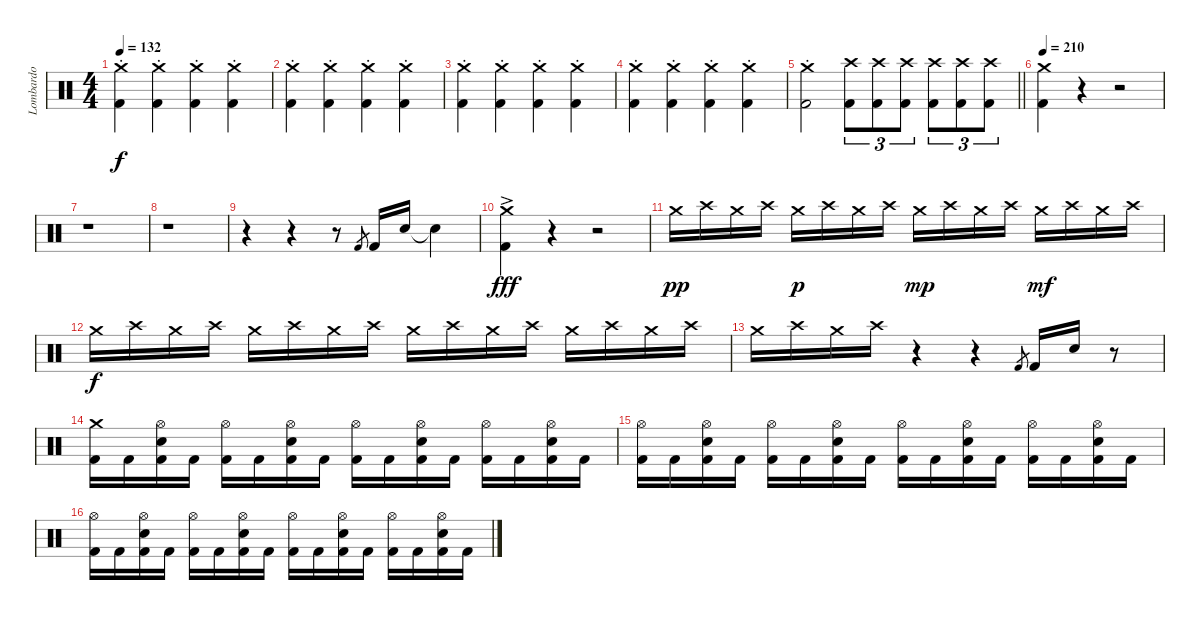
\track ("Lombardo" "Lombardo") {instrument percussion}
\staff {score}
\articulation defaults
\ts (4 4)
\tempo 132
\clef neutral
\ks c
("Crash medium (hit)"{st} "Kick (hit) 2").4{dy f} ("Crash medium (hit)"{st} "Kick (hit) 2").4 ("Crash medium (hit)"{st} "Kick (hit) 2").4 ("Crash medium (hit)"{st} "Kick (hit) 2").4 |
("Crash medium (hit)"{st} "Kick (hit) 2").4 ("Crash medium (hit)"{st} "Kick (hit) 2").4 ("Crash medium (hit)"{st} "Kick (hit) 2").4 ("Crash medium (hit)"{st} "Kick (hit) 2").4 |
("Crash medium (hit)"{st} "Kick (hit) 2").4 ("Crash medium (hit)"{st} "Kick (hit) 2").4 ("Crash medium (hit)"{st} "Kick (hit) 2").4 ("Crash medium (hit)"{st} "Kick (hit) 2").4 |
("Crash medium (hit)"{st} "Kick (hit) 2").4 ("Crash medium (hit)"{st} "Kick (hit) 2").4 ("Crash medium (hit)"{st} "Kick (hit) 2").4 ("Crash medium (hit)"{st} "Kick (hit) 2").4 |
\barLineRight lightlight
("Crash medium (hit)"{st} "Kick (hit) 2").2 ("Crash high (hit)" "Kick (hit) 2").8{tu (3 2)} ("Crash high (hit)" "Kick (hit) 2").8{tu (3 2)} ("Crash high (hit)" "Kick (hit) 2").8{tu (3 2)} ("Crash high (hit)" "Kick (hit) 2").8{tu (3 2)} ("Crash high (hit)" "Kick (hit) 2").8{tu (3 2)} ("Crash high (hit)" "Kick (hit) 2").8{tu (3 2)} |
\tempo 210
("Crash medium (hit)" "Kick (hit) 2").4 r.4 r.2 |
r.1 |
r.1 |
r.4 r.4 r.8 "Kick (hit) 2".8{gr} "Kick (hit) 2".16 "Snare (hit) 2".16 "Snare (hit)"{t}.4 |
("Crash medium (hit)"{ac} "Kick (hit) 2").4{dy fff} r.4 r.2 |
"Crash medium (hit)".16{dy pp} "Crash high (hit)".16 "Crash medium (hit)".16 "Crash high (hit)".16 "Crash medium (hit)".16{dy p} "Crash high (hit)".16 "Crash medium (hit)".16 "Crash high (hit)".16 "Crash medium (hit)".16{dy mp} "Crash high (hit)".16 "Crash medium (hit)".16 "Crash high (hit)".16 "Crash medium (hit)".16{dy mf} "Crash high (hit)".16 "Crash medium (hit)".16 "Crash high (hit)".16 |
"Crash medium (hit)".16{dy f} "Crash high (hit)".16 "Crash medium (hit)".16 "Crash high (hit)".16 "Crash medium (hit)".16 "Crash high (hit)".16 "Crash medium (hit)".16 "Crash high (hit)".16 "Crash medium (hit)".16 "Crash high (hit)".16 "Crash medium (hit)".16 "Crash high (hit)".16 "Crash medium (hit)".16 "Crash high (hit)".16 "Crash medium (hit)".16 "Crash high (hit)".16 |
"Crash medium (hit)".16 "Crash high (hit)".16 "Crash medium (hit)".16 "Crash high (hit)".16 r.4 r.4 "Kick (hit) 2".8{gr} "Kick (hit) 2".16 "Snare (hit) 2".16 r.8 |
("Crash medium (hit)" "Kick (hit) 2").16 "Kick (hit) 2".16 ("Hi-Hat (open)" "Snare (hit) 2" "Kick (hit) 2").16 "Kick (hit) 2".16 ("Hi-Hat (open)" "Kick (hit) 2").16 "Kick (hit) 2".16 ("Hi-Hat (open)" "Snare (hit) 2" "Kick (hit) 2").16 "Kick (hit) 2".16 ("Hi-Hat (open)" "Kick (hit) 2").16 "Kick (hit) 2".16 ("Hi-Hat (open)" "Snare (hit) 2" "Kick (hit) 2").16 "Kick (hit) 2".16 ("Hi-Hat (open)" "Kick (hit) 2").16 "Kick (hit) 2".16 ("Hi-Hat (open)" "Snare (hit) 2" "Kick (hit) 2").16 "Kick (hit) 2".16 |
("Hi-Hat (open)" "Kick (hit) 2").16 "Kick (hit) 2".16 ("Hi-Hat (open)" "Snare (hit) 2" "Kick (hit) 2").16 "Kick (hit) 2".16 ("Hi-Hat (open)" "Kick (hit) 2").16 "Kick (hit) 2".16 ("Hi-Hat (open)" "Snare (hit) 2" "Kick (hit) 2").16 "Kick (hit) 2".16 ("Hi-Hat (open)" "Kick (hit) 2").16 "Kick (hit) 2".16 ("Hi-Hat (open)" "Snare (hit) 2" "Kick (hit) 2").16 "Kick (hit) 2".16 ("Hi-Hat (open)" "Kick (hit) 2").16 "Kick (hit) 2".16 ("Hi-Hat (open)" "Snare (hit) 2" "Kick (hit) 2").16 "Kick (hit) 2".16 |
("Hi-Hat (open)" "Kick (hit) 2").16 "Kick (hit) 2".16 ("Hi-Hat (open)" "Snare (hit) 2" "Kick (hit) 2").16 "Kick (hit) 2".16 ("Hi-Hat (open)" "Kick (hit) 2").16 "Kick (hit) 2".16 ("Hi-Hat (open)" "Snare (hit) 2" "Kick (hit) 2").16 "Kick (hit) 2".16 ("Hi-Hat (open)" "Kick (hit) 2").16 "Kick (hit) 2".16 ("Hi-Hat (open)" "Snare (hit) 2" "Kick (hit) 2").16 "Kick (hit) 2".16 ("Hi-Hat (open)" "Kick (hit) 2").16 "Kick (hit) 2".16 ("Hi-Hat (open)" "Snare (hit) 2" "Kick (hit) 2").16 "Kick (hit) 2".16
